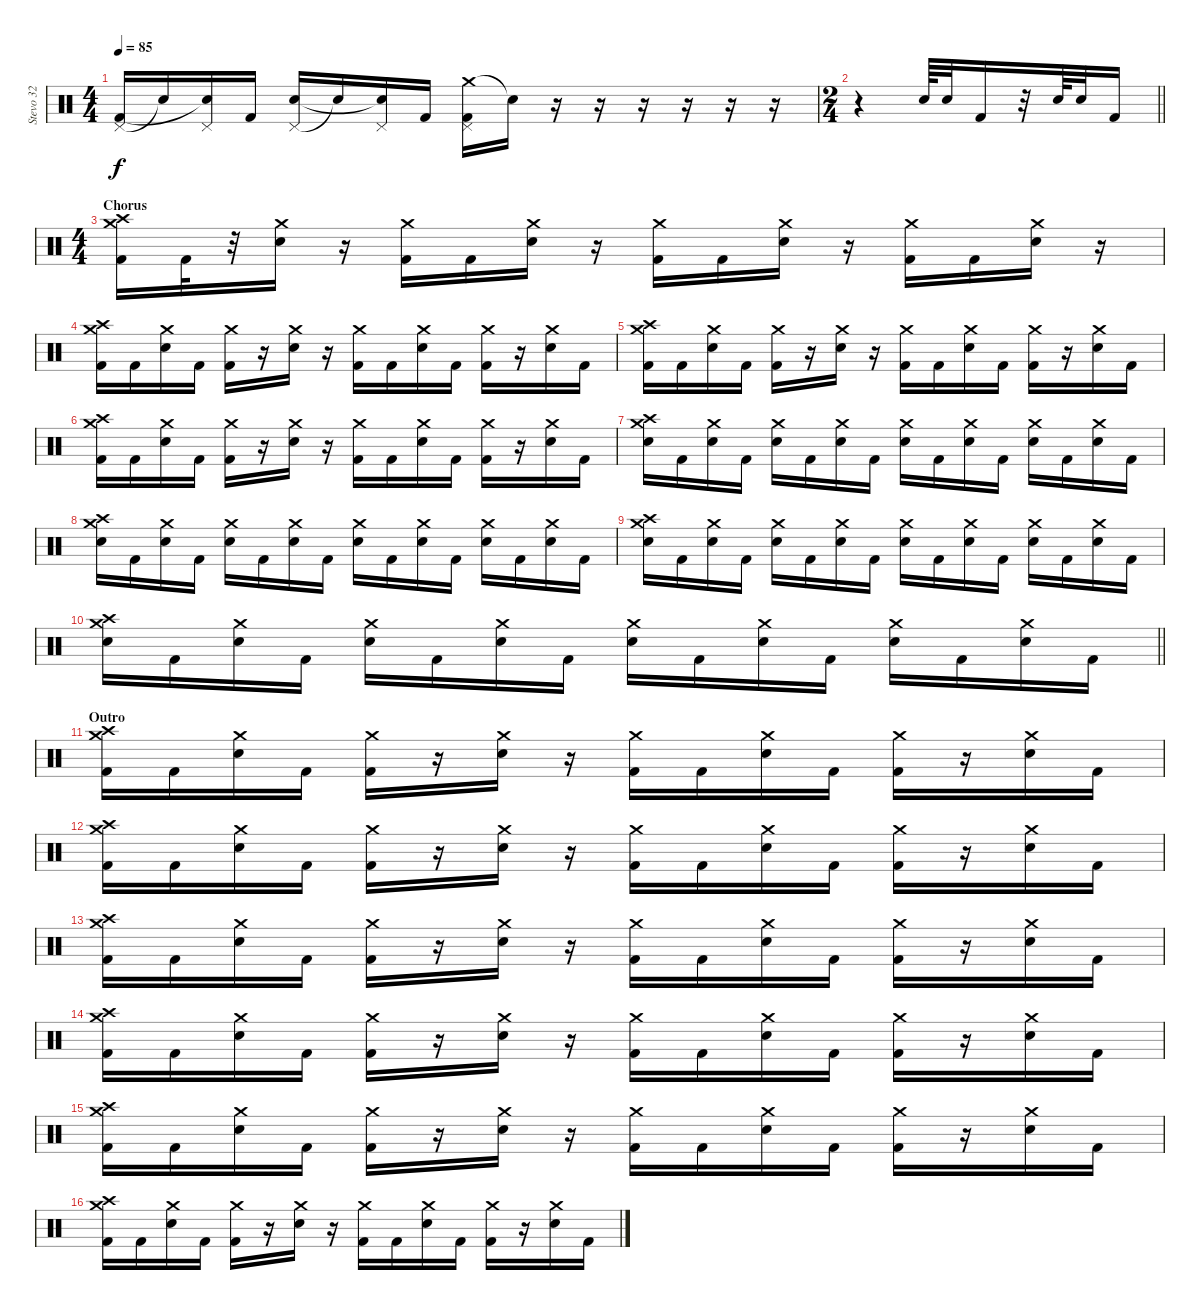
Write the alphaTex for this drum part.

\track ("Stevo 32" "Stevo 32") {instrument percussion}
\staff {score}
\articulation defaults
\ts (4 4)
\tempo 85
\clef neutral
\ks c
("Pedal Hi-Hat (hit)" "Kick (hit) 2").16{dy f} "Snare (hit)"{t}.16 ("Pedal Hi-Hat (hit)" "Snare (hit)"{t}).16 "Kick (hit) 2".16 ("Pedal Hi-Hat (hit)" "Electric Snare (hit)").16 "Snare (hit)"{t}.16 ("Pedal Hi-Hat (hit)" "Snare (hit)"{t}).16 "Kick (hit) 2".16 ("Crash medium (hit)" "Pedal Hi-Hat (hit)" "Kick (hit) 2").16 "Snare (hit)"{t}.16 r.16 r.16 r.16 r.16 r.16 r.16 |
\ts (2 4)
\barLineRight lightlight
r.4 "Electric Snare (hit)".64 "Electric Snare (hit)".32 "Kick (hit) 2".16 r.32 "Electric Snare (hit)".64 "Electric Snare (hit)".32 "Kick (hit) 2".16 |
\ts (4 4)
\section ("" "Chorus")
("Crash high (hit)" "Crash medium (hit)" "Kick (hit) 2").16 "Kick (hit) 2".32 r.32 ("Crash medium (hit)" "Electric Snare (hit)").16 r.16 ("Crash medium (hit)" "Kick (hit) 2").16 "Kick (hit) 2".16 ("Crash medium (hit)" "Electric Snare (hit)").16 r.16 ("Crash medium (hit)" "Kick (hit) 2").16 "Kick (hit) 2".16 ("Crash medium (hit)" "Electric Snare (hit)").16 r.16 ("Crash medium (hit)" "Kick (hit) 2").16 "Kick (hit) 2".16 ("Crash medium (hit)" "Electric Snare (hit)").16 r.16 |
("Crash high (hit)" "Crash medium (hit)" "Kick (hit) 2").16 "Kick (hit) 2".16 ("Crash medium (hit)" "Electric Snare (hit)").16 "Kick (hit) 2".16 ("Crash medium (hit)" "Kick (hit) 2").16 r.16 ("Crash medium (hit)" "Electric Snare (hit)").16 r.16 ("Crash medium (hit)" "Kick (hit) 2").16 "Kick (hit) 2".16 ("Crash medium (hit)" "Electric Snare (hit)").16 "Kick (hit) 2".16 ("Crash medium (hit)" "Kick (hit) 2").16 r.16 ("Crash medium (hit)" "Electric Snare (hit)").16 "Kick (hit) 2".16 |
("Crash high (hit)" "Crash medium (hit)" "Kick (hit) 2").16 "Kick (hit) 2".16 ("Crash medium (hit)" "Electric Snare (hit)").16 "Kick (hit) 2".16 ("Crash medium (hit)" "Kick (hit) 2").16 r.16 ("Crash medium (hit)" "Electric Snare (hit)").16 r.16 ("Crash medium (hit)" "Kick (hit) 2").16 "Kick (hit) 2".16 ("Crash medium (hit)" "Electric Snare (hit)").16 "Kick (hit) 2".16 ("Crash medium (hit)" "Kick (hit) 2").16 r.16 ("Crash medium (hit)" "Electric Snare (hit)").16 "Kick (hit) 2".16 |
("Crash high (hit)" "Crash medium (hit)" "Kick (hit) 2").16 "Kick (hit) 2".16 ("Crash medium (hit)" "Electric Snare (hit)").16 "Kick (hit) 2".16 ("Crash medium (hit)" "Kick (hit) 2").16 r.16 ("Crash medium (hit)" "Electric Snare (hit)").16 r.16 ("Crash medium (hit)" "Kick (hit) 2").16 "Kick (hit) 2".16 ("Crash medium (hit)" "Electric Snare (hit)").16 "Kick (hit) 2".16 ("Crash medium (hit)" "Kick (hit) 2").16 r.16 ("Crash medium (hit)" "Electric Snare (hit)").16 "Kick (hit) 2".16 |
("Crash high (hit)" "Crash medium (hit)" "Electric Snare (hit)").16 "Kick (hit) 2".16 ("Crash medium (hit)" "Electric Snare (hit)").16 "Kick (hit) 2".16 ("Crash medium (hit)" "Electric Snare (hit)").16 "Kick (hit) 2".16 ("Crash medium (hit)" "Electric Snare (hit)").16 "Kick (hit) 2".16 ("Crash medium (hit)" "Electric Snare (hit)").16 "Kick (hit) 2".16 ("Crash medium (hit)" "Electric Snare (hit)").16 "Kick (hit) 2".16 ("Crash medium (hit)" "Electric Snare (hit)").16 "Kick (hit) 2".16 ("Crash medium (hit)" "Electric Snare (hit)").16 "Kick (hit) 2".16 |
("Crash high (hit)" "Crash medium (hit)" "Electric Snare (hit)").16 "Kick (hit) 2".16 ("Crash medium (hit)" "Electric Snare (hit)").16 "Kick (hit) 2".16 ("Crash medium (hit)" "Electric Snare (hit)").16 "Kick (hit) 2".16 ("Crash medium (hit)" "Electric Snare (hit)").16 "Kick (hit) 2".16 ("Crash medium (hit)" "Electric Snare (hit)").16 "Kick (hit) 2".16 ("Crash medium (hit)" "Electric Snare (hit)").16 "Kick (hit) 2".16 ("Crash medium (hit)" "Electric Snare (hit)").16 "Kick (hit) 2".16 ("Crash medium (hit)" "Electric Snare (hit)").16 "Kick (hit) 2".16 |
("Crash high (hit)" "Crash medium (hit)" "Electric Snare (hit)").16 "Kick (hit) 2".16 ("Crash medium (hit)" "Electric Snare (hit)").16 "Kick (hit) 2".16 ("Crash medium (hit)" "Electric Snare (hit)").16 "Kick (hit) 2".16 ("Crash medium (hit)" "Electric Snare (hit)").16 "Kick (hit) 2".16 ("Crash medium (hit)" "Electric Snare (hit)").16 "Kick (hit) 2".16 ("Crash medium (hit)" "Electric Snare (hit)").16 "Kick (hit) 2".16 ("Crash medium (hit)" "Electric Snare (hit)").16 "Kick (hit) 2".16 ("Crash medium (hit)" "Electric Snare (hit)").16 "Kick (hit) 2".16 |
\barLineRight lightlight
("Crash high (hit)" "Crash medium (hit)" "Electric Snare (hit)").16 "Kick (hit) 2".16 ("Crash medium (hit)" "Electric Snare (hit)").16 "Kick (hit) 2".16 ("Crash medium (hit)" "Electric Snare (hit)").16 "Kick (hit) 2".16 ("Crash medium (hit)" "Electric Snare (hit)").16 "Kick (hit) 2".16 ("Crash medium (hit)" "Electric Snare (hit)").16 "Kick (hit) 2".16 ("Crash medium (hit)" "Electric Snare (hit)").16 "Kick (hit) 2".16 ("Crash medium (hit)" "Electric Snare (hit)").16 "Kick (hit) 2".16 ("Crash medium (hit)" "Electric Snare (hit)").16 "Kick (hit) 2".16 |
\section ("" "Outro")
("Crash high (hit)" "Crash medium (hit)" "Kick (hit) 2").16 "Kick (hit) 2".16 ("Crash medium (hit)" "Electric Snare (hit)").16 "Kick (hit) 2".16 ("Crash medium (hit)" "Kick (hit) 2").16 r.16 ("Crash medium (hit)" "Electric Snare (hit)").16 r.16 ("Crash medium (hit)" "Kick (hit) 2").16 "Kick (hit) 2".16 ("Crash medium (hit)" "Electric Snare (hit)").16 "Kick (hit) 2".16 ("Crash medium (hit)" "Kick (hit) 2").16 r.16 ("Crash medium (hit)" "Electric Snare (hit)").16 "Kick (hit) 2".16 |
("Crash high (hit)" "Crash medium (hit)" "Kick (hit) 2").16 "Kick (hit) 2".16 ("Crash medium (hit)" "Electric Snare (hit)").16 "Kick (hit) 2".16 ("Crash medium (hit)" "Kick (hit) 2").16 r.16 ("Crash medium (hit)" "Electric Snare (hit)").16 r.16 ("Crash medium (hit)" "Kick (hit) 2").16 "Kick (hit) 2".16 ("Crash medium (hit)" "Electric Snare (hit)").16 "Kick (hit) 2".16 ("Crash medium (hit)" "Kick (hit) 2").16 r.16 ("Crash medium (hit)" "Electric Snare (hit)").16 "Kick (hit) 2".16 |
("Crash high (hit)" "Crash medium (hit)" "Kick (hit) 2").16 "Kick (hit) 2".16 ("Crash medium (hit)" "Electric Snare (hit)").16 "Kick (hit) 2".16 ("Crash medium (hit)" "Kick (hit) 2").16 r.16 ("Crash medium (hit)" "Electric Snare (hit)").16 r.16 ("Crash medium (hit)" "Kick (hit) 2").16 "Kick (hit) 2".16 ("Crash medium (hit)" "Electric Snare (hit)").16 "Kick (hit) 2".16 ("Crash medium (hit)" "Kick (hit) 2").16 r.16 ("Crash medium (hit)" "Electric Snare (hit)").16 "Kick (hit) 2".16 |
("Crash high (hit)" "Crash medium (hit)" "Kick (hit) 2").16 "Kick (hit) 2".16 ("Crash medium (hit)" "Electric Snare (hit)").16 "Kick (hit) 2".16 ("Crash medium (hit)" "Kick (hit) 2").16 r.16 ("Crash medium (hit)" "Electric Snare (hit)").16 r.16 ("Crash medium (hit)" "Kick (hit) 2").16 "Kick (hit) 2".16 ("Crash medium (hit)" "Electric Snare (hit)").16 "Kick (hit) 2".16 ("Crash medium (hit)" "Kick (hit) 2").16 r.16 ("Crash medium (hit)" "Electric Snare (hit)").16 "Kick (hit) 2".16 |
("Crash high (hit)" "Crash medium (hit)" "Kick (hit) 2").16 "Kick (hit) 2".16 ("Crash medium (hit)" "Electric Snare (hit)").16 "Kick (hit) 2".16 ("Crash medium (hit)" "Kick (hit) 2").16 r.16 ("Crash medium (hit)" "Electric Snare (hit)").16 r.16 ("Crash medium (hit)" "Kick (hit) 2").16 "Kick (hit) 2".16 ("Crash medium (hit)" "Electric Snare (hit)").16 "Kick (hit) 2".16 ("Crash medium (hit)" "Kick (hit) 2").16 r.16 ("Crash medium (hit)" "Electric Snare (hit)").16 "Kick (hit) 2".16 |
("Crash high (hit)" "Crash medium (hit)" "Kick (hit) 2").16 "Kick (hit) 2".16 ("Crash medium (hit)" "Electric Snare (hit)").16 "Kick (hit) 2".16 ("Crash medium (hit)" "Kick (hit) 2").16 r.16 ("Crash medium (hit)" "Electric Snare (hit)").16 r.16 ("Crash medium (hit)" "Kick (hit) 2").16 "Kick (hit) 2".16 ("Crash medium (hit)" "Electric Snare (hit)").16 "Kick (hit) 2".16 ("Crash medium (hit)" "Kick (hit) 2").16 r.16 ("Crash medium (hit)" "Electric Snare (hit)").16 "Kick (hit) 2".16
